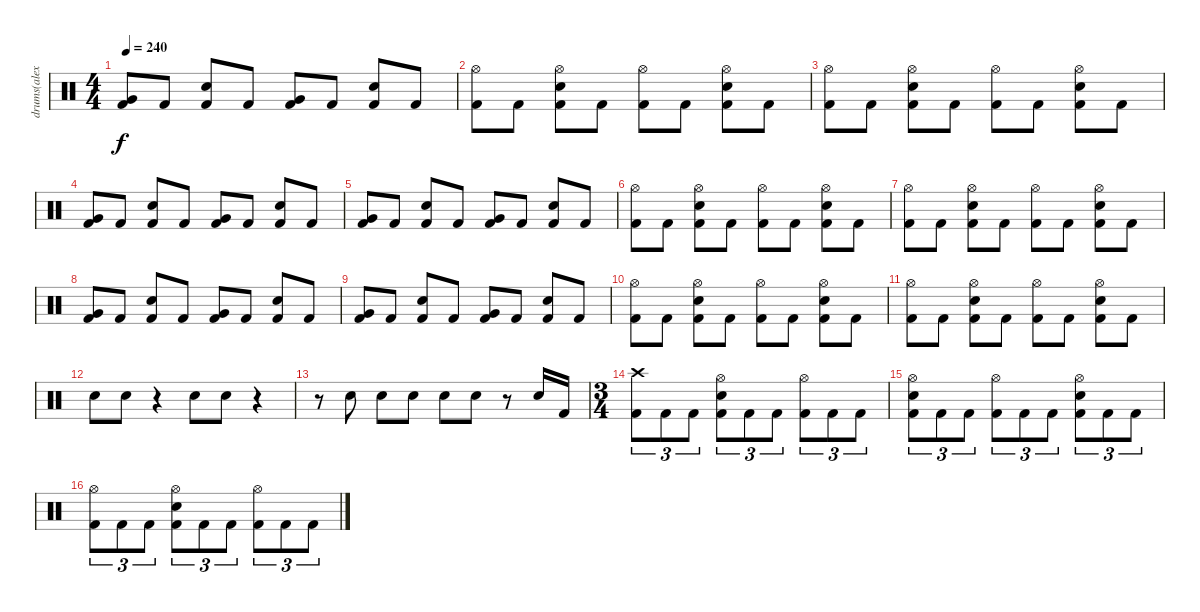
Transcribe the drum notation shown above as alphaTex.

\track ("drums(alex holzshwart)" "drums(alex") {instrument percussion}
\staff {score}
\articulation defaults
\ts (4 4)
\tempo 240
\clef neutral
\ks c
("Very Low Tom (hit)" "Kick (hit) 2").8{dy f} "Kick (hit) 2".8 ("Electric Snare (hit)" "Kick (hit) 2").8 "Kick (hit) 2".8 ("Very Low Tom (hit)" "Kick (hit) 2").8 "Kick (hit) 2".8 ("Electric Snare (hit)" "Kick (hit) 2").8 "Kick (hit) 2".8 |
("Hi-Hat (open)" "Kick (hit) 2").8 "Kick (hit) 2".8 ("Hi-Hat (open)" "Electric Snare (hit)" "Kick (hit) 2").8 "Kick (hit) 2".8 ("Hi-Hat (open)" "Kick (hit) 2").8 "Kick (hit) 2".8 ("Hi-Hat (open)" "Electric Snare (hit)" "Kick (hit) 2").8 "Kick (hit) 2".8 |
("Hi-Hat (open)" "Kick (hit) 2").8 "Kick (hit) 2".8 ("Hi-Hat (open)" "Electric Snare (hit)" "Kick (hit) 2").8 "Kick (hit) 2".8 ("Hi-Hat (open)" "Kick (hit) 2").8 "Kick (hit) 2".8 ("Hi-Hat (open)" "Electric Snare (hit)" "Kick (hit) 2").8 "Kick (hit) 2".8 |
("Very Low Tom (hit)" "Kick (hit) 2").8 "Kick (hit) 2".8 ("Electric Snare (hit)" "Kick (hit) 2").8 "Kick (hit) 2".8 ("Very Low Tom (hit)" "Kick (hit) 2").8 "Kick (hit) 2".8 ("Electric Snare (hit)" "Kick (hit) 2").8 "Kick (hit) 2".8 |
("Very Low Tom (hit)" "Kick (hit) 2").8 "Kick (hit) 2".8 ("Electric Snare (hit)" "Kick (hit) 2").8 "Kick (hit) 2".8 ("Very Low Tom (hit)" "Kick (hit) 2").8 "Kick (hit) 2".8 ("Electric Snare (hit)" "Kick (hit) 2").8 "Kick (hit) 2".8 |
("Hi-Hat (open)" "Kick (hit) 2").8 "Kick (hit) 2".8 ("Hi-Hat (open)" "Electric Snare (hit)" "Kick (hit) 2").8 "Kick (hit) 2".8 ("Hi-Hat (open)" "Kick (hit) 2").8 "Kick (hit) 2".8 ("Hi-Hat (open)" "Electric Snare (hit)" "Kick (hit) 2").8 "Kick (hit) 2".8 |
("Hi-Hat (open)" "Kick (hit) 2").8 "Kick (hit) 2".8 ("Hi-Hat (open)" "Electric Snare (hit)" "Kick (hit) 2").8 "Kick (hit) 2".8 ("Hi-Hat (open)" "Kick (hit) 2").8 "Kick (hit) 2".8 ("Hi-Hat (open)" "Electric Snare (hit)" "Kick (hit) 2").8 "Kick (hit) 2".8 |
("Very Low Tom (hit)" "Kick (hit) 2").8 "Kick (hit) 2".8 ("Electric Snare (hit)" "Kick (hit) 2").8 "Kick (hit) 2".8 ("Very Low Tom (hit)" "Kick (hit) 2").8 "Kick (hit) 2".8 ("Electric Snare (hit)" "Kick (hit) 2").8 "Kick (hit) 2".8 |
("Very Low Tom (hit)" "Kick (hit) 2").8 "Kick (hit) 2".8 ("Electric Snare (hit)" "Kick (hit) 2").8 "Kick (hit) 2".8 ("Very Low Tom (hit)" "Kick (hit) 2").8 "Kick (hit) 2".8 ("Electric Snare (hit)" "Kick (hit) 2").8 "Kick (hit) 2".8 |
("Hi-Hat (open)" "Kick (hit) 2").8 "Kick (hit) 2".8 ("Hi-Hat (open)" "Electric Snare (hit)" "Kick (hit) 2").8 "Kick (hit) 2".8 ("Hi-Hat (open)" "Kick (hit) 2").8 "Kick (hit) 2".8 ("Hi-Hat (open)" "Electric Snare (hit)" "Kick (hit) 2").8 "Kick (hit) 2".8 |
("Hi-Hat (open)" "Kick (hit) 2").8 "Kick (hit) 2".8 ("Hi-Hat (open)" "Electric Snare (hit)" "Kick (hit) 2").8 "Kick (hit) 2".8 ("Hi-Hat (open)" "Kick (hit) 2").8 "Kick (hit) 2".8 ("Hi-Hat (open)" "Electric Snare (hit)" "Kick (hit) 2").8 "Kick (hit) 2".8 |
"Electric Snare (hit)".8 "Electric Snare (hit)".8 r.4 "Electric Snare (hit)".8 "Electric Snare (hit)".8 r.4 |
r.8 "Electric Snare (hit)".8 "Electric Snare (hit)".8 "Electric Snare (hit)".8 "Electric Snare (hit)".8 "Electric Snare (hit)".8 r.8 "Electric Snare (hit)".16 "Kick (hit) 2".16 |
\ts (3 4)
("Crash high (hit)" "Kick (hit) 2").8{tu (3 2)} "Kick (hit) 2".8{tu (3 2)} "Kick (hit) 2".8{tu (3 2)} ("Hi-Hat (open)" "Electric Snare (hit)" "Kick (hit) 2").8{tu (3 2)} "Kick (hit) 2".8{tu (3 2)} "Kick (hit) 2".8{tu (3 2)} ("Hi-Hat (open)" "Kick (hit) 2").8{tu (3 2)} "Kick (hit) 2".8{tu (3 2)} "Kick (hit) 2".8{tu (3 2)} |
("Hi-Hat (open)" "Electric Snare (hit)" "Kick (hit) 2").8{tu (3 2)} "Kick (hit) 2".8{tu (3 2)} "Kick (hit) 2".8{tu (3 2)} ("Hi-Hat (open)" "Kick (hit) 2").8{tu (3 2)} "Kick (hit) 2".8{tu (3 2)} "Kick (hit) 2".8{tu (3 2)} ("Hi-Hat (open)" "Electric Snare (hit)" "Kick (hit) 2").8{tu (3 2)} "Kick (hit) 2".8{tu (3 2)} "Kick (hit) 2".8{tu (3 2)} |
("Hi-Hat (open)" "Kick (hit) 2").8{tu (3 2)} "Kick (hit) 2".8{tu (3 2)} "Kick (hit) 2".8{tu (3 2)} ("Hi-Hat (open)" "Electric Snare (hit)" "Kick (hit) 2").8{tu (3 2)} "Kick (hit) 2".8{tu (3 2)} "Kick (hit) 2".8{tu (3 2)} ("Hi-Hat (open)" "Kick (hit) 2").8{tu (3 2)} "Kick (hit) 2".8{tu (3 2)} "Kick (hit) 2".8{tu (3 2)}
